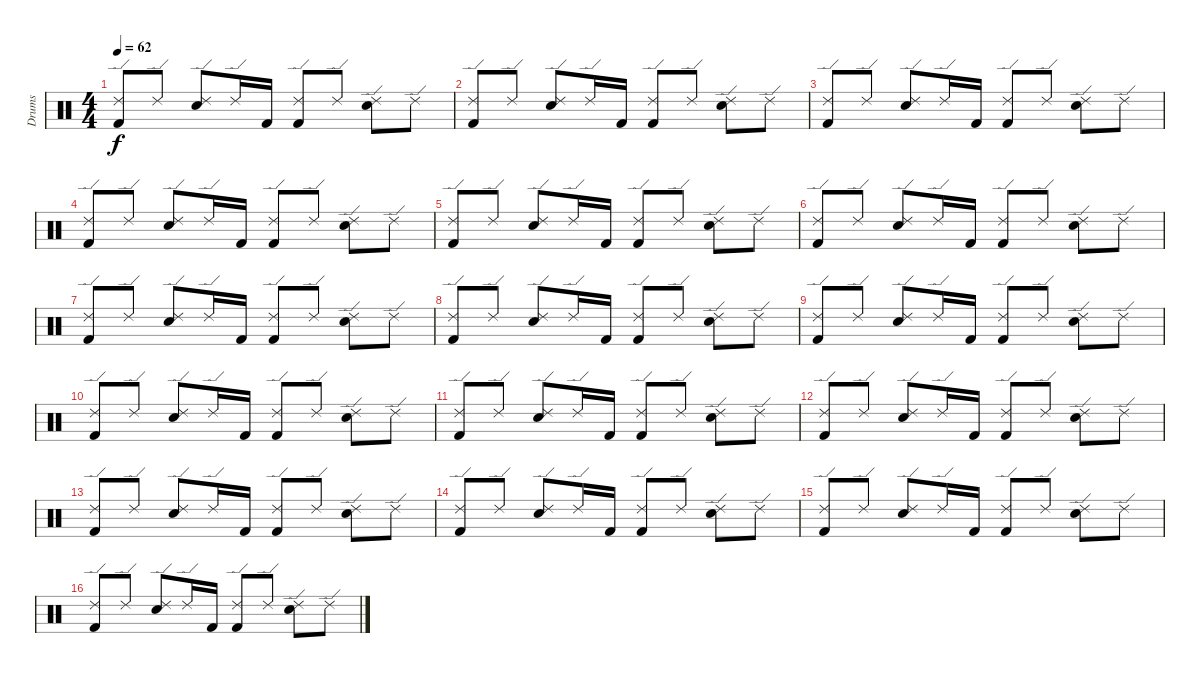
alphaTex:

\track ("Drums" "Drums") {instrument percussion}
\staff {score}
\articulation defaults
\ts (4 4)
\tempo 62
\clef neutral
\ks c
("Ride (edge) 2" "Kick (hit) 2").8{dy f} "Ride (edge) 2".8 ("Ride (edge) 2" "Electric Snare (hit)").8 "Ride (edge) 2".16 "Kick (hit) 2".16 ("Ride (edge) 2" "Kick (hit) 2").8 "Ride (edge) 2".8 ("Ride (edge) 2" "Electric Snare (hit)").8 "Ride (edge) 2".8 |
("Ride (edge) 2" "Kick (hit) 2").8 "Ride (edge) 2".8 ("Ride (edge) 2" "Electric Snare (hit)").8 "Ride (edge) 2".16 "Kick (hit) 2".16 ("Ride (edge) 2" "Kick (hit) 2").8 "Ride (edge) 2".8 ("Ride (edge) 2" "Electric Snare (hit)").8 "Ride (edge) 2".8 |
("Ride (edge) 2" "Kick (hit) 2").8 "Ride (edge) 2".8 ("Ride (edge) 2" "Electric Snare (hit)").8 "Ride (edge) 2".16 "Kick (hit) 2".16 ("Ride (edge) 2" "Kick (hit) 2").8 "Ride (edge) 2".8 ("Ride (edge) 2" "Electric Snare (hit)").8 "Ride (edge) 2".8 |
("Ride (edge) 2" "Kick (hit) 2").8 "Ride (edge) 2".8 ("Ride (edge) 2" "Electric Snare (hit)").8 "Ride (edge) 2".16 "Kick (hit) 2".16 ("Ride (edge) 2" "Kick (hit) 2").8 "Ride (edge) 2".8 ("Ride (edge) 2" "Electric Snare (hit)").8 "Ride (edge) 2".8 |
("Ride (edge) 2" "Kick (hit) 2").8 "Ride (edge) 2".8 ("Ride (edge) 2" "Electric Snare (hit)").8 "Ride (edge) 2".16 "Kick (hit) 2".16 ("Ride (edge) 2" "Kick (hit) 2").8 "Ride (edge) 2".8 ("Ride (edge) 2" "Electric Snare (hit)").8 "Ride (edge) 2".8 |
("Ride (edge) 2" "Kick (hit) 2").8 "Ride (edge) 2".8 ("Ride (edge) 2" "Electric Snare (hit)").8 "Ride (edge) 2".16 "Kick (hit) 2".16 ("Ride (edge) 2" "Kick (hit) 2").8 "Ride (edge) 2".8 ("Ride (edge) 2" "Electric Snare (hit)").8 "Ride (edge) 2".8 |
("Ride (edge) 2" "Kick (hit) 2").8 "Ride (edge) 2".8 ("Ride (edge) 2" "Electric Snare (hit)").8 "Ride (edge) 2".16 "Kick (hit) 2".16 ("Ride (edge) 2" "Kick (hit) 2").8 "Ride (edge) 2".8 ("Ride (edge) 2" "Electric Snare (hit)").8 "Ride (edge) 2".8 |
("Ride (edge) 2" "Kick (hit) 2").8 "Ride (edge) 2".8 ("Ride (edge) 2" "Electric Snare (hit)").8 "Ride (edge) 2".16 "Kick (hit) 2".16 ("Ride (edge) 2" "Kick (hit) 2").8 "Ride (edge) 2".8 ("Ride (edge) 2" "Electric Snare (hit)").8 "Ride (edge) 2".8 |
("Ride (edge) 2" "Kick (hit) 2").8 "Ride (edge) 2".8 ("Ride (edge) 2" "Electric Snare (hit)").8 "Ride (edge) 2".16 "Kick (hit) 2".16 ("Ride (edge) 2" "Kick (hit) 2").8 "Ride (edge) 2".8 ("Ride (edge) 2" "Electric Snare (hit)").8 "Ride (edge) 2".8 |
("Ride (edge) 2" "Kick (hit) 2").8 "Ride (edge) 2".8 ("Ride (edge) 2" "Electric Snare (hit)").8 "Ride (edge) 2".16 "Kick (hit) 2".16 ("Ride (edge) 2" "Kick (hit) 2").8 "Ride (edge) 2".8 ("Ride (edge) 2" "Electric Snare (hit)").8 "Ride (edge) 2".8 |
("Ride (edge) 2" "Kick (hit) 2").8 "Ride (edge) 2".8 ("Ride (edge) 2" "Electric Snare (hit)").8 "Ride (edge) 2".16 "Kick (hit) 2".16 ("Ride (edge) 2" "Kick (hit) 2").8 "Ride (edge) 2".8 ("Ride (edge) 2" "Electric Snare (hit)").8 "Ride (edge) 2".8 |
("Ride (edge) 2" "Kick (hit) 2").8 "Ride (edge) 2".8 ("Ride (edge) 2" "Electric Snare (hit)").8 "Ride (edge) 2".16 "Kick (hit) 2".16 ("Ride (edge) 2" "Kick (hit) 2").8 "Ride (edge) 2".8 ("Ride (edge) 2" "Electric Snare (hit)").8 "Ride (edge) 2".8 |
("Ride (edge) 2" "Kick (hit) 2").8 "Ride (edge) 2".8 ("Ride (edge) 2" "Electric Snare (hit)").8 "Ride (edge) 2".16 "Kick (hit) 2".16 ("Ride (edge) 2" "Kick (hit) 2").8 "Ride (edge) 2".8 ("Ride (edge) 2" "Electric Snare (hit)").8 "Ride (edge) 2".8 |
("Ride (edge) 2" "Kick (hit) 2").8 "Ride (edge) 2".8 ("Ride (edge) 2" "Electric Snare (hit)").8 "Ride (edge) 2".16 "Kick (hit) 2".16 ("Ride (edge) 2" "Kick (hit) 2").8 "Ride (edge) 2".8 ("Ride (edge) 2" "Electric Snare (hit)").8 "Ride (edge) 2".8 |
("Ride (edge) 2" "Kick (hit) 2").8 "Ride (edge) 2".8 ("Ride (edge) 2" "Electric Snare (hit)").8 "Ride (edge) 2".16 "Kick (hit) 2".16 ("Ride (edge) 2" "Kick (hit) 2").8 "Ride (edge) 2".8 ("Ride (edge) 2" "Electric Snare (hit)").8 "Ride (edge) 2".8 |
("Ride (edge) 2" "Kick (hit) 2").8 "Ride (edge) 2".8 ("Ride (edge) 2" "Electric Snare (hit)").8 "Ride (edge) 2".16 "Kick (hit) 2".16 ("Ride (edge) 2" "Kick (hit) 2").8 "Ride (edge) 2".8 ("Ride (edge) 2" "Electric Snare (hit)").8 "Ride (edge) 2".8
